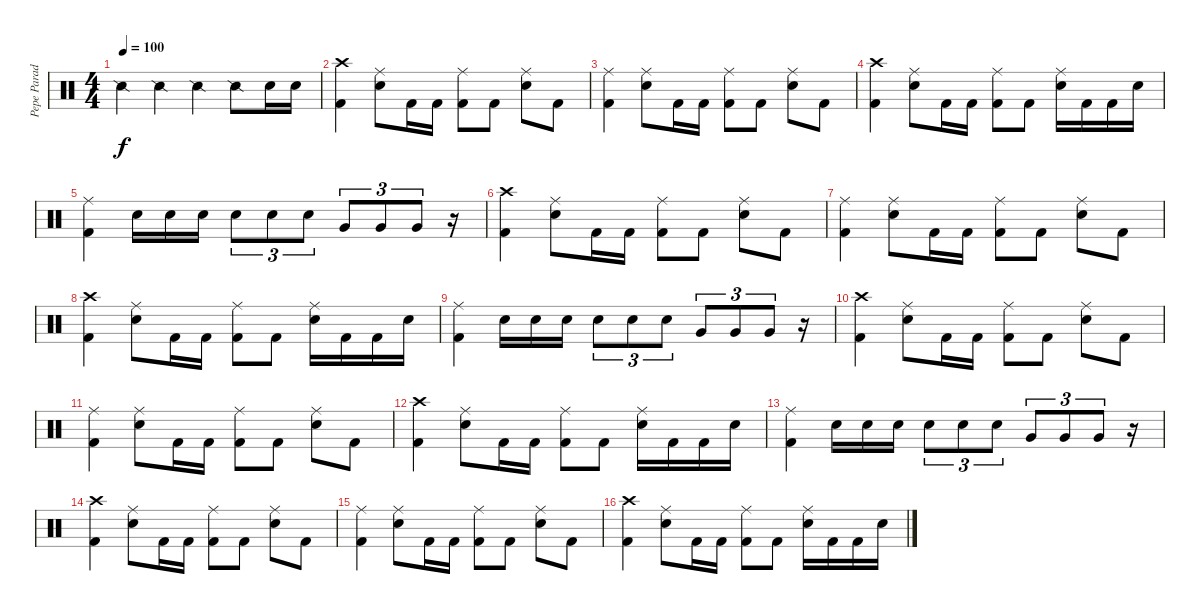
\track ("Pepe Parada (kit de percusion)" "Pepe Parad") {instrument percussion}
\staff {score}
\articulation defaults
\ts (4 4)
\tempo 100
\clef neutral
\ks c "Snare (side stick) 2".4{dy f} "Snare (side stick) 2".4 "Snare (side stick) 2".4 "Snare (side stick) 2".8 "Snare (hit) 2".16 "Snare (hit) 2".16
|
("Crash high (hit)" "Kick (hit) 2").4 ("Ride (middle)" "Snare (hit) 2").8 "Kick (hit) 2".16 "Kick (hit) 2".16 ("Ride (middle)" "Kick (hit) 2").8 "Kick (hit) 2".8 ("Ride (middle)" "Snare (hit) 2").8 "Kick (hit) 2".8 |
("Ride (middle)" "Kick (hit) 2").4 ("Ride (middle)" "Snare (hit) 2").8 "Kick (hit) 2".16 "Kick (hit) 2".16 ("Ride (middle)" "Kick (hit) 2").8 "Kick (hit) 2".8 ("Ride (middle)" "Snare (hit) 2").8 "Kick (hit) 2".8 |
("Crash high (hit)" "Kick (hit) 2").4 ("Ride (middle)" "Snare (hit) 2").8 "Kick (hit) 2".16 "Kick (hit) 2".16 ("Ride (middle)" "Kick (hit) 2").8 "Kick (hit) 2".8 ("Ride (middle)" "Snare (hit) 2").16 "Kick (hit) 2".16 "Kick (hit) 2".16 "Snare (hit) 2".16 |
("Ride (middle)" "Kick (hit) 2").4 "Snare (hit) 2".16 "Snare (hit) 2".16 "Snare (hit) 2".16 "Snare (hit) 2".8{tu (3 2)} "Snare (hit) 2".8{tu (3 2)} "Snare (hit) 2".8{tu (3 2)} "Very Low Tom (hit)".8{tu (3 2)} "Very Low Tom (hit)".8{tu (3 2)} "Very Low Tom (hit)".8{tu (3 2)} r.16 |
("Crash high (hit)" "Kick (hit) 2").4 ("Ride (middle)" "Snare (hit) 2").8 "Kick (hit) 2".16 "Kick (hit) 2".16 ("Ride (middle)" "Kick (hit) 2").8 "Kick (hit) 2".8 ("Ride (middle)" "Snare (hit) 2").8 "Kick (hit) 2".8 |
("Ride (middle)" "Kick (hit) 2").4 ("Ride (middle)" "Snare (hit) 2").8 "Kick (hit) 2".16 "Kick (hit) 2".16 ("Ride (middle)" "Kick (hit) 2").8 "Kick (hit) 2".8 ("Ride (middle)" "Snare (hit) 2").8 "Kick (hit) 2".8 |
("Crash high (hit)" "Kick (hit) 2").4 ("Ride (middle)" "Snare (hit) 2").8 "Kick (hit) 2".16 "Kick (hit) 2".16 ("Ride (middle)" "Kick (hit) 2").8 "Kick (hit) 2".8 ("Ride (middle)" "Snare (hit) 2").16 "Kick (hit) 2".16 "Kick (hit) 2".16 "Snare (hit) 2".16 |
("Ride (middle)" "Kick (hit) 2").4 "Snare (hit) 2".16 "Snare (hit) 2".16 "Snare (hit) 2".16 "Snare (hit) 2".8{tu (3 2)} "Snare (hit) 2".8{tu (3 2)} "Snare (hit) 2".8{tu (3 2)} "Very Low Tom (hit)".8{tu (3 2)} "Very Low Tom (hit)".8{tu (3 2)} "Very Low Tom (hit)".8{tu (3 2)} r.16 |
("Crash high (hit)" "Kick (hit) 2").4 ("Ride (middle)" "Snare (hit) 2").8 "Kick (hit) 2".16 "Kick (hit) 2".16 ("Ride (middle)" "Kick (hit) 2").8 "Kick (hit) 2".8 ("Ride (middle)" "Snare (hit) 2").8 "Kick (hit) 2".8 |
("Ride (middle)" "Kick (hit) 2").4 ("Ride (middle)" "Snare (hit) 2").8 "Kick (hit) 2".16 "Kick (hit) 2".16 ("Ride (middle)" "Kick (hit) 2").8 "Kick (hit) 2".8 ("Ride (middle)" "Snare (hit) 2").8 "Kick (hit) 2".8 |
("Crash high (hit)" "Kick (hit) 2").4 ("Ride (middle)" "Snare (hit) 2").8 "Kick (hit) 2".16 "Kick (hit) 2".16 ("Ride (middle)" "Kick (hit) 2").8 "Kick (hit) 2".8 ("Ride (middle)" "Snare (hit) 2").16 "Kick (hit) 2".16 "Kick (hit) 2".16 "Snare (hit) 2".16 |
("Ride (middle)" "Kick (hit) 2").4 "Snare (hit) 2".16 "Snare (hit) 2".16 "Snare (hit) 2".16 "Snare (hit) 2".8{tu (3 2)} "Snare (hit) 2".8{tu (3 2)} "Snare (hit) 2".8{tu (3 2)} "Very Low Tom (hit)".8{tu (3 2)} "Very Low Tom (hit)".8{tu (3 2)} "Very Low Tom (hit)".8{tu (3 2)} r.16 |
("Crash high (hit)" "Kick (hit) 2").4 ("Ride (middle)" "Snare (hit) 2").8 "Kick (hit) 2".16 "Kick (hit) 2".16 ("Ride (middle)" "Kick (hit) 2").8 "Kick (hit) 2".8 ("Ride (middle)" "Snare (hit) 2").8 "Kick (hit) 2".8 |
("Ride (middle)" "Kick (hit) 2").4 ("Ride (middle)" "Snare (hit) 2").8 "Kick (hit) 2".16 "Kick (hit) 2".16 ("Ride (middle)" "Kick (hit) 2").8 "Kick (hit) 2".8 ("Ride (middle)" "Snare (hit) 2").8 "Kick (hit) 2".8 |
("Crash high (hit)" "Kick (hit) 2").4 ("Ride (middle)" "Snare (hit) 2").8 "Kick (hit) 2".16 "Kick (hit) 2".16 ("Ride (middle)" "Kick (hit) 2").8 "Kick (hit) 2".8 ("Ride (middle)" "Snare (hit) 2").16 "Kick (hit) 2".16 "Kick (hit) 2".16 "Snare (hit) 2".16
